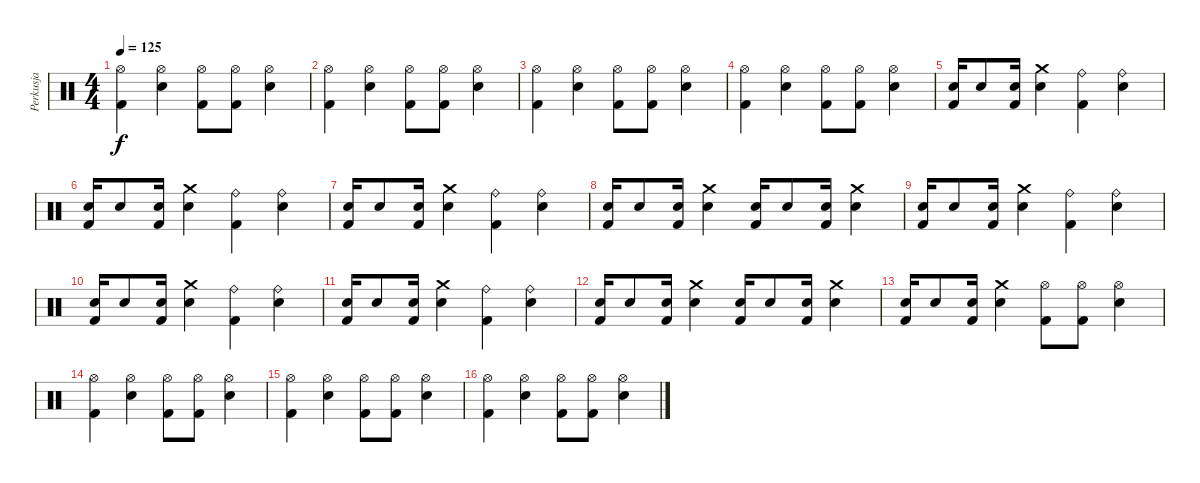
\track ("Perkusja" "Perkusja") {instrument percussion}
\staff {score}
\articulation defaults
\ts (4 4)
\tempo 125
\clef neutral
\ks c
("Hi-Hat (open)" "Kick (hit) 2").4{dy f} ("Hi-Hat (open)" "Electric Snare (hit)").4 ("Hi-Hat (open)" "Kick (hit) 2").8 ("Hi-Hat (open)" "Kick (hit) 2").8 ("Hi-Hat (open)" "Electric Snare (hit)").4 |
("Hi-Hat (open)" "Kick (hit) 2").4 ("Hi-Hat (open)" "Electric Snare (hit)").4 ("Hi-Hat (open)" "Kick (hit) 2").8 ("Hi-Hat (open)" "Kick (hit) 2").8 ("Hi-Hat (open)" "Electric Snare (hit)").4 |
("Hi-Hat (open)" "Kick (hit) 2").4 ("Hi-Hat (open)" "Electric Snare (hit)").4 ("Hi-Hat (open)" "Kick (hit) 2").8 ("Hi-Hat (open)" "Kick (hit) 2").8 ("Hi-Hat (open)" "Electric Snare (hit)").4 |
("Hi-Hat (open)" "Kick (hit) 2").4 ("Hi-Hat (open)" "Electric Snare (hit)").4 ("Hi-Hat (open)" "Kick (hit) 2").8 ("Hi-Hat (open)" "Kick (hit) 2").8 ("Hi-Hat (open)" "Electric Snare (hit)").4 |
("Electric Snare (hit)" "Kick (hit) 2").16 "Electric Snare (hit)".8 ("Electric Snare (hit)" "Kick (hit) 2").16 ("Crash medium (hit)" "Electric Snare (hit)").4 ("Ride (bell)" "Kick (hit) 2").4 ("Ride (bell)" "Electric Snare (hit)").4 |
("Electric Snare (hit)" "Kick (hit) 2").16 "Electric Snare (hit)".8 ("Electric Snare (hit)" "Kick (hit) 2").16 ("Crash medium (hit)" "Electric Snare (hit)").4 ("Ride (bell)" "Kick (hit) 2").4 ("Ride (bell)" "Electric Snare (hit)").4 |
("Electric Snare (hit)" "Kick (hit) 2").16 "Electric Snare (hit)".8 ("Electric Snare (hit)" "Kick (hit) 2").16 ("Crash medium (hit)" "Electric Snare (hit)").4 ("Ride (bell)" "Kick (hit) 2").4 ("Ride (bell)" "Electric Snare (hit)").4 |
("Electric Snare (hit)" "Kick (hit) 2").16 "Electric Snare (hit)".8 ("Electric Snare (hit)" "Kick (hit) 2").16 ("Crash medium (hit)" "Electric Snare (hit)").4 ("Electric Snare (hit)" "Kick (hit) 2").16 "Electric Snare (hit)".8 ("Electric Snare (hit)" "Kick (hit) 2").16 ("Crash medium (hit)" "Electric Snare (hit)").4 |
("Electric Snare (hit)" "Kick (hit) 2").16 "Electric Snare (hit)".8 ("Electric Snare (hit)" "Kick (hit) 2").16 ("Crash medium (hit)" "Electric Snare (hit)").4 ("Ride (bell)" "Kick (hit) 2").4 ("Ride (bell)" "Electric Snare (hit)").4 |
("Electric Snare (hit)" "Kick (hit) 2").16 "Electric Snare (hit)".8 ("Electric Snare (hit)" "Kick (hit) 2").16 ("Crash medium (hit)" "Electric Snare (hit)").4 ("Ride (bell)" "Kick (hit) 2").4 ("Ride (bell)" "Electric Snare (hit)").4 |
("Electric Snare (hit)" "Kick (hit) 2").16 "Electric Snare (hit)".8 ("Electric Snare (hit)" "Kick (hit) 2").16 ("Crash medium (hit)" "Electric Snare (hit)").4 ("Ride (bell)" "Kick (hit) 2").4 ("Ride (bell)" "Electric Snare (hit)").4 |
("Electric Snare (hit)" "Kick (hit) 2").16 "Electric Snare (hit)".8 ("Electric Snare (hit)" "Kick (hit) 2").16 ("Crash medium (hit)" "Electric Snare (hit)").4 ("Electric Snare (hit)" "Kick (hit) 2").16 "Electric Snare (hit)".8 ("Electric Snare (hit)" "Kick (hit) 2").16 ("Crash medium (hit)" "Electric Snare (hit)").4 |
("Electric Snare (hit)" "Kick (hit) 2").16 "Electric Snare (hit)".8 ("Electric Snare (hit)" "Kick (hit) 2").16 ("Crash medium (hit)" "Electric Snare (hit)").4 ("Hi-Hat (open)" "Kick (hit) 2").8 ("Hi-Hat (open)" "Kick (hit) 2").8 ("Hi-Hat (open)" "Electric Snare (hit)").4 |
("Hi-Hat (open)" "Kick (hit) 2").4 ("Hi-Hat (open)" "Electric Snare (hit)").4 ("Hi-Hat (open)" "Kick (hit) 2").8 ("Hi-Hat (open)" "Kick (hit) 2").8 ("Hi-Hat (open)" "Electric Snare (hit)").4 |
("Hi-Hat (open)" "Kick (hit) 2").4 ("Hi-Hat (open)" "Electric Snare (hit)").4 ("Hi-Hat (open)" "Kick (hit) 2").8 ("Hi-Hat (open)" "Kick (hit) 2").8 ("Hi-Hat (open)" "Electric Snare (hit)").4 |
("Hi-Hat (open)" "Kick (hit) 2").4 ("Hi-Hat (open)" "Electric Snare (hit)").4 ("Hi-Hat (open)" "Kick (hit) 2").8 ("Hi-Hat (open)" "Kick (hit) 2").8 ("Hi-Hat (open)" "Electric Snare (hit)").4
